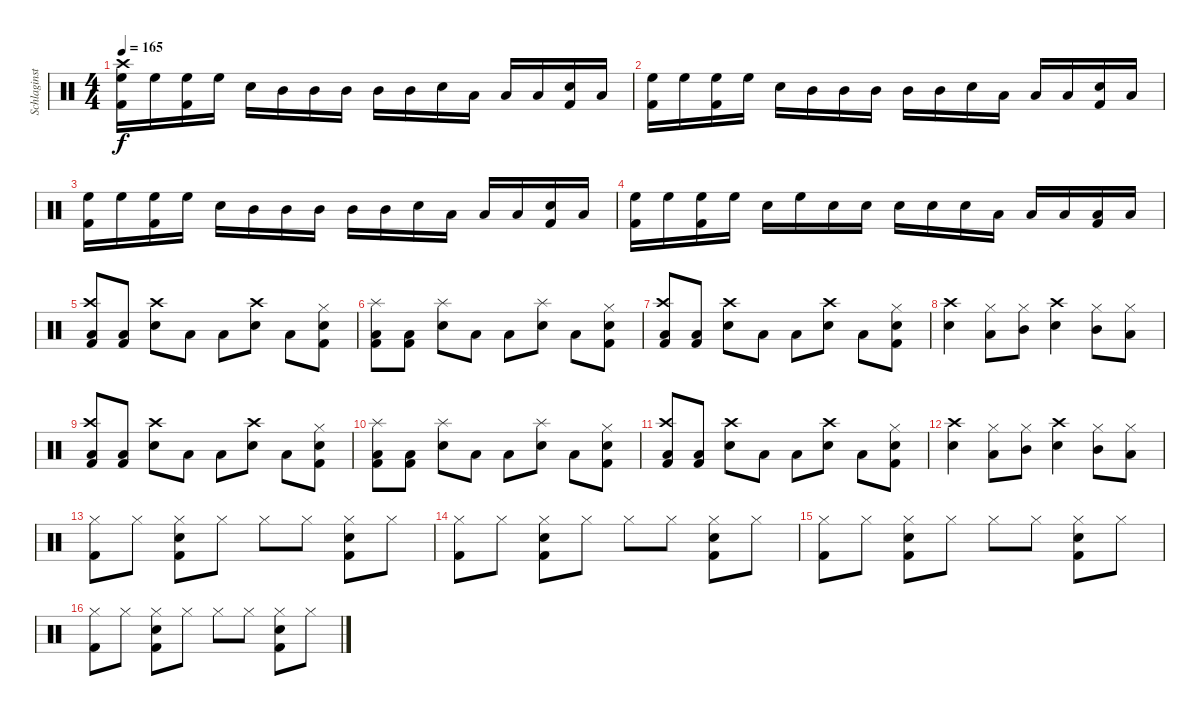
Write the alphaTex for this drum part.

\track ("Schlaginstrumente - Auswahl" "Schlaginst") {instrument percussion}
\staff {score}
\articulation defaults
\ts (4 4)
\tempo 165
\clef neutral
\ks c
("Kick (hit) 2" "High Floor Tom (hit)" "Crash high (hit)").16{dy f} "High Floor Tom (hit)".16 ("Kick (hit) 2" "High Floor Tom (hit)").16 "High Floor Tom (hit)".16 "Snare (hit) 2".16 "Mid Tom (hit)".16 "Mid Tom (hit)".16 "Mid Tom (hit)".16 "Mid Tom (hit)".16 "Mid Tom (hit)".16 "Snare (hit) 2".16 "Low Tom (hit)".16 "Low Tom (hit)".16 "Low Tom (hit)".16 ("Kick (hit) 2" "Snare (hit) 2").16 "Low Tom (hit)".16 |
("Kick (hit) 2" "High Floor Tom (hit)").16 "High Floor Tom (hit)".16 ("Kick (hit) 2" "High Floor Tom (hit)").16 "High Floor Tom (hit)".16 "Snare (hit) 2".16 "Mid Tom (hit)".16 "Mid Tom (hit)".16 "Mid Tom (hit)".16 "Mid Tom (hit)".16 "Mid Tom (hit)".16 "Snare (hit) 2".16 "Low Tom (hit)".16 "Low Tom (hit)".16 "Low Tom (hit)".16 ("Kick (hit) 2" "Snare (hit) 2").16 "Low Tom (hit)".16 |
("Kick (hit) 2" "High Floor Tom (hit)").16 "High Floor Tom (hit)".16 ("Kick (hit) 2" "High Floor Tom (hit)").16 "High Floor Tom (hit)".16 "Snare (hit) 2".16 "Mid Tom (hit)".16 "Mid Tom (hit)".16 "Mid Tom (hit)".16 "Mid Tom (hit)".16 "Mid Tom (hit)".16 "Snare (hit) 2".16 "Low Tom (hit)".16 "Low Tom (hit)".16 "Low Tom (hit)".16 ("Kick (hit) 2" "Snare (hit) 2").16 "Low Tom (hit)".16 |
("Kick (hit) 2" "High Floor Tom (hit)").16 "High Floor Tom (hit)".16 ("Kick (hit) 2" "High Floor Tom (hit)").16 "High Floor Tom (hit)".16 "Snare (hit) 2".16 "High Floor Tom (hit)".16 "Snare (hit) 2".16 "Snare (hit) 2".16 "Snare (hit) 2".16 "Snare (hit) 2".16 "Snare (hit) 2".16 "Low Tom (hit)".16 "Low Tom (hit)".16 "Low Tom (hit)".16 ("Kick (hit) 2" "Low Tom (hit)").16 "Low Tom (hit)".16 |
("Kick (hit) 2" "Low Tom (hit)" "Crash high (hit)").8 ("Kick (hit) 2" "Low Tom (hit)").8 ("Snare (hit) 2" "Crash high (hit)").8 "Low Tom (hit)".8 "Low Tom (hit)".8 ("Snare (hit) 2" "Crash high (hit)").8 "Low Tom (hit)".8 ("Kick (hit) 2" "Snare (hit) 2" "Hi-Hat (closed)").8 |
("Kick (hit) 2" "Low Tom (hit)" "Splash (hit)").8 ("Kick (hit) 2" "Low Tom (hit)").8 ("Snare (hit) 2" "Splash (hit)").8 "Low Tom (hit)".8 "Low Tom (hit)".8 ("Snare (hit) 2" "Splash (hit)").8 "Low Tom (hit)".8 ("Kick (hit) 2" "Snare (hit) 2" "Hi-Hat (closed)").8 |
("Kick (hit) 2" "Low Tom (hit)" "Crash high (hit)").8 ("Kick (hit) 2" "Low Tom (hit)").8 ("Snare (hit) 2" "Crash high (hit)").8 "Low Tom (hit)".8 "Low Tom (hit)".8 ("Snare (hit) 2" "Crash high (hit)").8 "Low Tom (hit)".8 ("Kick (hit) 2" "Snare (hit) 2" "Hi-Hat (closed)").8 |
("Snare (hit) 2" "Crash high (hit)").4 ("Low Tom (hit)" "Hi-Hat (closed)").8 ("Mid Tom (hit)" "Hi-Hat (closed)").8 ("Snare (hit) 2" "Crash high (hit)").4 ("Mid Tom (hit)" "Hi-Hat (closed)").8 ("Low Tom (hit)" "Hi-Hat (closed)").8 |
("Kick (hit) 2" "Low Tom (hit)" "Crash high (hit)").8 ("Kick (hit) 2" "Low Tom (hit)").8 ("Snare (hit) 2" "Crash high (hit)").8 "Low Tom (hit)".8 "Low Tom (hit)".8 ("Snare (hit) 2" "Crash high (hit)").8 "Low Tom (hit)".8 ("Kick (hit) 2" "Snare (hit) 2" "Hi-Hat (closed)").8 |
("Kick (hit) 2" "Low Tom (hit)" "Splash (hit)").8 ("Kick (hit) 2" "Low Tom (hit)").8 ("Snare (hit) 2" "Splash (hit)").8 "Low Tom (hit)".8 "Low Tom (hit)".8 ("Snare (hit) 2" "Splash (hit)").8 "Low Tom (hit)".8 ("Kick (hit) 2" "Snare (hit) 2" "Hi-Hat (closed)").8 |
("Kick (hit) 2" "Low Tom (hit)" "Crash high (hit)").8 ("Kick (hit) 2" "Low Tom (hit)").8 ("Snare (hit) 2" "Crash high (hit)").8 "Low Tom (hit)".8 "Low Tom (hit)".8 ("Snare (hit) 2" "Crash high (hit)").8 "Low Tom (hit)".8 ("Kick (hit) 2" "Snare (hit) 2" "Hi-Hat (closed)").8 |
("Snare (hit) 2" "Crash high (hit)").4 ("Low Tom (hit)" "Hi-Hat (closed)").8 ("Mid Tom (hit)" "Hi-Hat (closed)").8 ("Snare (hit) 2" "Crash high (hit)").4 ("Mid Tom (hit)" "Hi-Hat (closed)").8 ("Low Tom (hit)" "Hi-Hat (closed)").8 |
("Kick (hit) 2" "Hi-Hat (closed)").8 "Hi-Hat (closed)".8 ("Kick (hit) 2" "Snare (hit) 2" "Hi-Hat (closed)").8 "Hi-Hat (closed)".8 "Hi-Hat (closed)".8 "Hi-Hat (closed)".8 ("Kick (hit) 2" "Snare (hit) 2" "Hi-Hat (closed)").8 "Hi-Hat (closed)".8 |
("Kick (hit) 2" "Hi-Hat (closed)").8 "Hi-Hat (closed)".8 ("Kick (hit) 2" "Snare (hit) 2" "Hi-Hat (closed)").8 "Hi-Hat (closed)".8 "Hi-Hat (closed)".8 "Hi-Hat (closed)".8 ("Kick (hit) 2" "Snare (hit) 2" "Hi-Hat (closed)").8 "Hi-Hat (closed)".8 |
("Kick (hit) 2" "Hi-Hat (closed)").8 "Hi-Hat (closed)".8 ("Kick (hit) 2" "Snare (hit) 2" "Hi-Hat (closed)").8 "Hi-Hat (closed)".8 "Hi-Hat (closed)".8 "Hi-Hat (closed)".8 ("Kick (hit) 2" "Snare (hit) 2" "Hi-Hat (closed)").8 "Hi-Hat (closed)".8 |
("Kick (hit) 2" "Hi-Hat (closed)").8 "Hi-Hat (closed)".8 ("Kick (hit) 2" "Snare (hit) 2" "Hi-Hat (closed)").8 "Hi-Hat (closed)".8 "Hi-Hat (closed)".8 "Hi-Hat (closed)".8 ("Kick (hit) 2" "Snare (hit) 2" "Hi-Hat (closed)").8 "Hi-Hat (closed)".8
